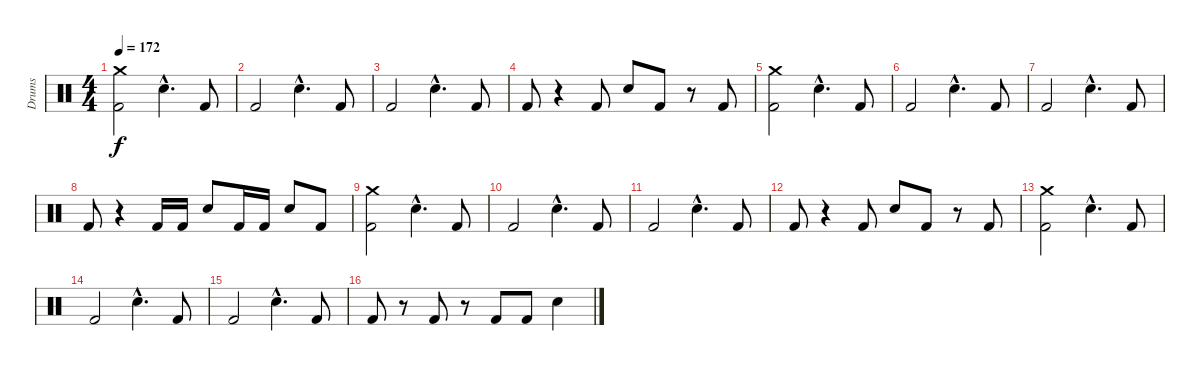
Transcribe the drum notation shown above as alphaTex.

\track ("Drums" "Drums") {instrument percussion}
\staff {score}
\articulation defaults
\ts (4 4)
\section ("" "")
\tempo 172
\clef neutral
\ks c
("Crash medium (hit)" "Kick (hit) 2").2{dy f} "Electric Snare (hit)"{hac}.4{d} "Kick (hit) 2".8 |
"Kick (hit) 2".2 "Electric Snare (hit)"{hac}.4{d} "Kick (hit) 2".8 |
"Kick (hit) 2".2 "Electric Snare (hit)"{hac}.4{d} "Kick (hit) 2".8 |
"Kick (hit) 2".8 r.4 "Kick (hit) 2".8 "Electric Snare (hit)".8 "Kick (hit) 2".8 r.8 "Kick (hit) 2".8 |
("Crash medium (hit)" "Kick (hit) 2").2 "Electric Snare (hit)"{hac}.4{d} "Kick (hit) 2".8 |
"Kick (hit) 2".2 "Electric Snare (hit)"{hac}.4{d} "Kick (hit) 2".8 |
"Kick (hit) 2".2 "Electric Snare (hit)"{hac}.4{d} "Kick (hit) 2".8 |
"Kick (hit) 2".8 r.4 "Kick (hit) 2".16 "Kick (hit) 2".16 "Electric Snare (hit)".8 "Kick (hit) 2".16 "Kick (hit) 2".16 "Electric Snare (hit)".8 "Kick (hit) 2".8 |
("Crash medium (hit)" "Kick (hit) 2").2 "Electric Snare (hit)"{hac}.4{d} "Kick (hit) 2".8 |
"Kick (hit) 2".2 "Electric Snare (hit)"{hac}.4{d} "Kick (hit) 2".8 |
"Kick (hit) 2".2 "Electric Snare (hit)"{hac}.4{d} "Kick (hit) 2".8 |
"Kick (hit) 2".8 r.4 "Kick (hit) 2".8 "Electric Snare (hit)".8 "Kick (hit) 2".8 r.8 "Kick (hit) 2".8 |
("Crash medium (hit)" "Kick (hit) 2").2 "Electric Snare (hit)"{hac}.4{d} "Kick (hit) 2".8 |
"Kick (hit) 2".2 "Electric Snare (hit)"{hac}.4{d} "Kick (hit) 2".8 |
"Kick (hit) 2".2 "Electric Snare (hit)"{hac}.4{d} "Kick (hit) 2".8 |
"Kick (hit) 2".8 r.8 "Kick (hit) 2".8 r.8 "Kick (hit) 2".8 "Kick (hit) 2".8 "Electric Snare (hit)".4
